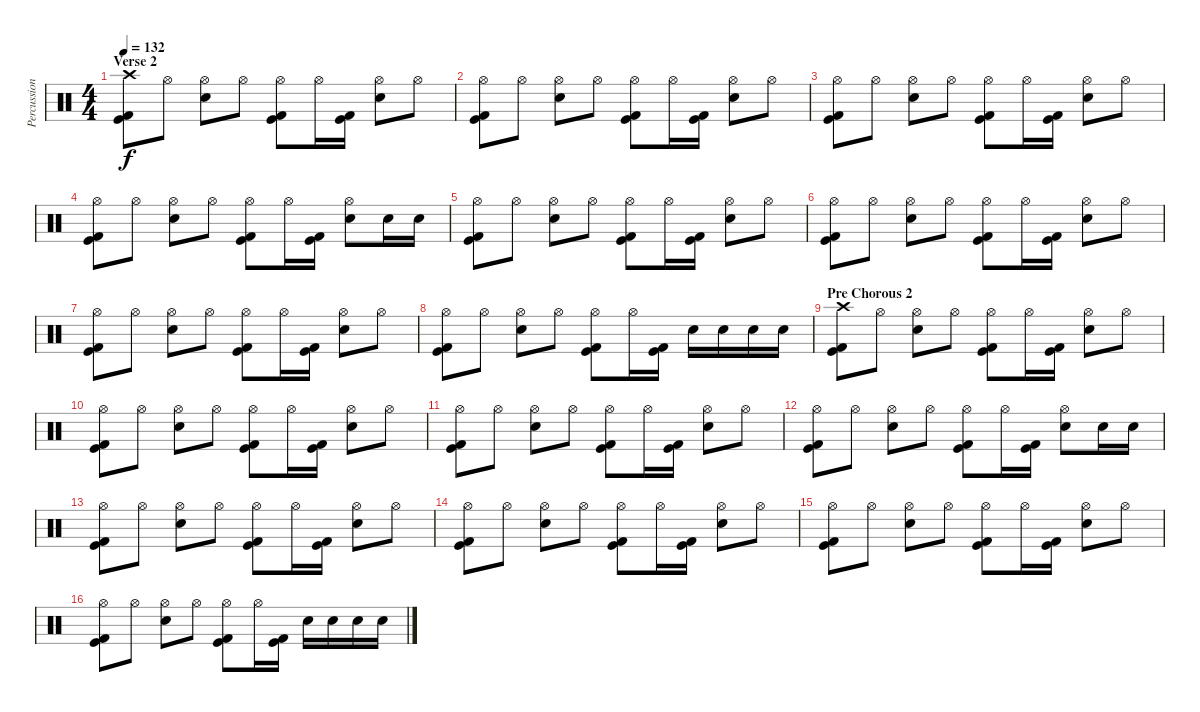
\track ("Percussion" "Percussion") {instrument percussion}
\staff {score}
\articulation defaults
\ts (4 4)
\section ("" "Verse 2")
\tempo 132
\clef neutral
\ks c
("Crash high (hit)" "Kick (hit)" "Kick (hit) 2").8{dy f} "Hi-Hat (open)".8 ("Hi-Hat (open)" "Electric Snare (hit)").8 "Hi-Hat (open)".8 ("Hi-Hat (open)" "Kick (hit)" "Kick (hit) 2").8 "Hi-Hat (open)".16 ("Kick (hit)" "Kick (hit) 2").16 ("Hi-Hat (open)" "Electric Snare (hit)").8 "Hi-Hat (open)".8 |
("Hi-Hat (open)" "Kick (hit)" "Kick (hit) 2").8 "Hi-Hat (open)".8 ("Hi-Hat (open)" "Electric Snare (hit)").8 "Hi-Hat (open)".8 ("Hi-Hat (open)" "Kick (hit)" "Kick (hit) 2").8 "Hi-Hat (open)".16 ("Kick (hit)" "Kick (hit) 2").16 ("Hi-Hat (open)" "Electric Snare (hit)").8 "Hi-Hat (open)".8 |
("Hi-Hat (open)" "Kick (hit)" "Kick (hit) 2").8 "Hi-Hat (open)".8 ("Hi-Hat (open)" "Electric Snare (hit)").8 "Hi-Hat (open)".8 ("Hi-Hat (open)" "Kick (hit)" "Kick (hit) 2").8 "Hi-Hat (open)".16 ("Kick (hit)" "Kick (hit) 2").16 ("Hi-Hat (open)" "Electric Snare (hit)").8 "Hi-Hat (open)".8 |
("Hi-Hat (open)" "Kick (hit)" "Kick (hit) 2").8 "Hi-Hat (open)".8 ("Hi-Hat (open)" "Electric Snare (hit)").8 "Hi-Hat (open)".8 ("Hi-Hat (open)" "Kick (hit)" "Kick (hit) 2").8 "Hi-Hat (open)".16 ("Kick (hit)" "Kick (hit) 2").16 ("Hi-Hat (open)" "Electric Snare (hit)").8 "Electric Snare (hit)".16 "Electric Snare (hit)".16 |
("Hi-Hat (open)" "Kick (hit)" "Kick (hit) 2").8 "Hi-Hat (open)".8 ("Hi-Hat (open)" "Electric Snare (hit)").8 "Hi-Hat (open)".8 ("Hi-Hat (open)" "Kick (hit)" "Kick (hit) 2").8 "Hi-Hat (open)".16 ("Kick (hit)" "Kick (hit) 2").16 ("Hi-Hat (open)" "Electric Snare (hit)").8 "Hi-Hat (open)".8 |
("Hi-Hat (open)" "Kick (hit)" "Kick (hit) 2").8 "Hi-Hat (open)".8 ("Hi-Hat (open)" "Electric Snare (hit)").8 "Hi-Hat (open)".8 ("Hi-Hat (open)" "Kick (hit)" "Kick (hit) 2").8 "Hi-Hat (open)".16 ("Kick (hit)" "Kick (hit) 2").16 ("Hi-Hat (open)" "Electric Snare (hit)").8 "Hi-Hat (open)".8 |
("Hi-Hat (open)" "Kick (hit)" "Kick (hit) 2").8 "Hi-Hat (open)".8 ("Hi-Hat (open)" "Electric Snare (hit)").8 "Hi-Hat (open)".8 ("Hi-Hat (open)" "Kick (hit)" "Kick (hit) 2").8 "Hi-Hat (open)".16 ("Kick (hit)" "Kick (hit) 2").16 ("Hi-Hat (open)" "Electric Snare (hit)").8 "Hi-Hat (open)".8 |
("Hi-Hat (open)" "Kick (hit)" "Kick (hit) 2").8 "Hi-Hat (open)".8 ("Hi-Hat (open)" "Electric Snare (hit)").8 "Hi-Hat (open)".8 ("Hi-Hat (open)" "Kick (hit)" "Kick (hit) 2").8 "Hi-Hat (open)".16 ("Kick (hit)" "Kick (hit) 2").16 "Electric Snare (hit)".16 "Electric Snare (hit)".16 "Electric Snare (hit)".16 "Electric Snare (hit)".16 |
\section ("" "Pre Chorous 2")
("Crash high (hit)" "Kick (hit)" "Kick (hit) 2").8 "Hi-Hat (open)".8 ("Hi-Hat (open)" "Electric Snare (hit)").8 "Hi-Hat (open)".8 ("Hi-Hat (open)" "Kick (hit)" "Kick (hit) 2").8 "Hi-Hat (open)".16 ("Kick (hit)" "Kick (hit) 2").16 ("Hi-Hat (open)" "Electric Snare (hit)").8 "Hi-Hat (open)".8 |
("Hi-Hat (open)" "Kick (hit)" "Kick (hit) 2").8 "Hi-Hat (open)".8 ("Hi-Hat (open)" "Electric Snare (hit)").8 "Hi-Hat (open)".8 ("Hi-Hat (open)" "Kick (hit)" "Kick (hit) 2").8 "Hi-Hat (open)".16 ("Kick (hit)" "Kick (hit) 2").16 ("Hi-Hat (open)" "Electric Snare (hit)").8 "Hi-Hat (open)".8 |
("Hi-Hat (open)" "Kick (hit)" "Kick (hit) 2").8 "Hi-Hat (open)".8 ("Hi-Hat (open)" "Electric Snare (hit)").8 "Hi-Hat (open)".8 ("Hi-Hat (open)" "Kick (hit)" "Kick (hit) 2").8 "Hi-Hat (open)".16 ("Kick (hit)" "Kick (hit) 2").16 ("Hi-Hat (open)" "Electric Snare (hit)").8 "Hi-Hat (open)".8 |
("Hi-Hat (open)" "Kick (hit)" "Kick (hit) 2").8 "Hi-Hat (open)".8 ("Hi-Hat (open)" "Electric Snare (hit)").8 "Hi-Hat (open)".8 ("Hi-Hat (open)" "Kick (hit)" "Kick (hit) 2").8 "Hi-Hat (open)".16 ("Kick (hit)" "Kick (hit) 2").16 ("Hi-Hat (open)" "Electric Snare (hit)").8 "Electric Snare (hit)".16 "Electric Snare (hit)".16 |
("Hi-Hat (open)" "Kick (hit)" "Kick (hit) 2").8 "Hi-Hat (open)".8 ("Hi-Hat (open)" "Electric Snare (hit)").8 "Hi-Hat (open)".8 ("Hi-Hat (open)" "Kick (hit)" "Kick (hit) 2").8 "Hi-Hat (open)".16 ("Kick (hit)" "Kick (hit) 2").16 ("Hi-Hat (open)" "Electric Snare (hit)").8 "Hi-Hat (open)".8 |
("Hi-Hat (open)" "Kick (hit)" "Kick (hit) 2").8 "Hi-Hat (open)".8 ("Hi-Hat (open)" "Electric Snare (hit)").8 "Hi-Hat (open)".8 ("Hi-Hat (open)" "Kick (hit)" "Kick (hit) 2").8 "Hi-Hat (open)".16 ("Kick (hit)" "Kick (hit) 2").16 ("Hi-Hat (open)" "Electric Snare (hit)").8 "Hi-Hat (open)".8 |
("Hi-Hat (open)" "Kick (hit)" "Kick (hit) 2").8 "Hi-Hat (open)".8 ("Hi-Hat (open)" "Electric Snare (hit)").8 "Hi-Hat (open)".8 ("Hi-Hat (open)" "Kick (hit)" "Kick (hit) 2").8 "Hi-Hat (open)".16 ("Kick (hit)" "Kick (hit) 2").16 ("Hi-Hat (open)" "Electric Snare (hit)").8 "Hi-Hat (open)".8 |
("Hi-Hat (open)" "Kick (hit)" "Kick (hit) 2").8 "Hi-Hat (open)".8 ("Hi-Hat (open)" "Electric Snare (hit)").8 "Hi-Hat (open)".8 ("Hi-Hat (open)" "Kick (hit)" "Kick (hit) 2").8 "Hi-Hat (open)".16 ("Kick (hit)" "Kick (hit) 2").16 "Electric Snare (hit)".16 "Electric Snare (hit)".16 "Electric Snare (hit)".16 "Electric Snare (hit)".16
